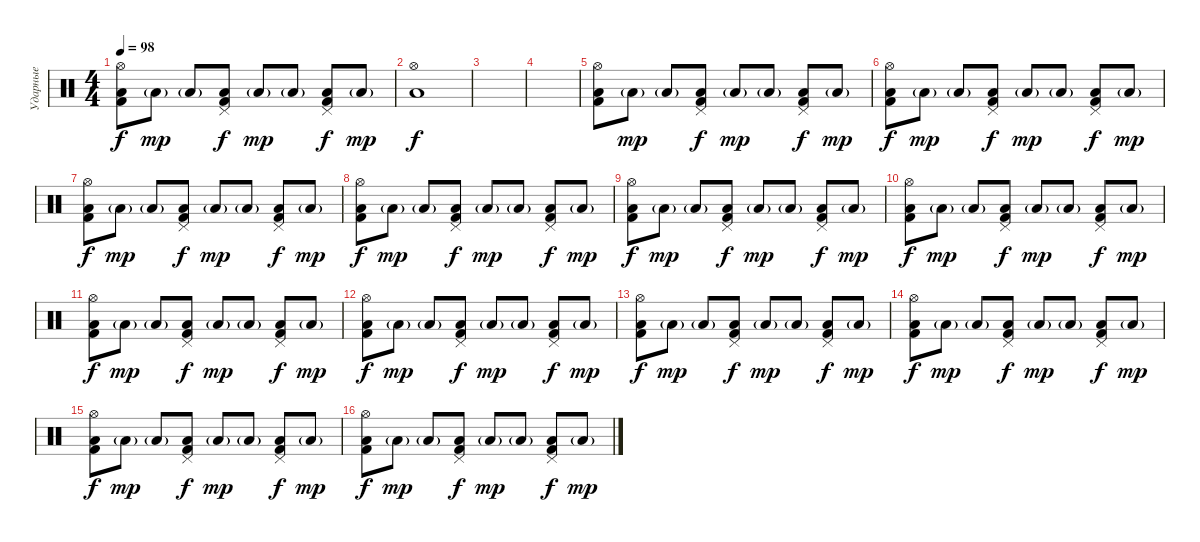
\track ("Ударные" "Ударные") {instrument percussion}
\staff {score}
\articulation defaults
\ts (4 4)
\tempo 98
\clef neutral
\ks c
("Hi-Hat (open)" "Kick (hit) 2" "Low Tom (hit)").8{dy f} "Low Tom (hit)"{g}.8{dy mp} "Low Tom (hit)"{g}.8 ("Pedal Hi-Hat (hit)" "Kick (hit) 2" "Low Tom (hit)").8{dy f} "Low Tom (hit)"{g}.8{dy mp} "Low Tom (hit)"{g}.8 ("Pedal Hi-Hat (hit)" "Kick (hit) 2" "Low Tom (hit)").8{dy f} "Low Tom (hit)"{g}.8{dy mp} |
("Hi-Hat (open)" "Low Tom (hit)").1{dy f} |
|
|
("Hi-Hat (open)" "Kick (hit) 2" "Low Tom (hit)").8 "Low Tom (hit)"{g}.8{dy mp} "Low Tom (hit)"{g}.8 ("Pedal Hi-Hat (hit)" "Kick (hit) 2" "Low Tom (hit)").8{dy f} "Low Tom (hit)"{g}.8{dy mp} "Low Tom (hit)"{g}.8 ("Pedal Hi-Hat (hit)" "Kick (hit) 2" "Low Tom (hit)").8{dy f} "Low Tom (hit)"{g}.8{dy mp} |
("Hi-Hat (open)" "Kick (hit) 2" "Low Tom (hit)").8{dy f} "Low Tom (hit)"{g}.8{dy mp} "Low Tom (hit)"{g}.8 ("Pedal Hi-Hat (hit)" "Kick (hit) 2" "Low Tom (hit)").8{dy f} "Low Tom (hit)"{g}.8{dy mp} "Low Tom (hit)"{g}.8 ("Pedal Hi-Hat (hit)" "Kick (hit) 2" "Low Tom (hit)").8{dy f} "Low Tom (hit)"{g}.8{dy mp} |
("Hi-Hat (open)" "Kick (hit) 2" "Low Tom (hit)").8{dy f} "Low Tom (hit)"{g}.8{dy mp} "Low Tom (hit)"{g}.8 ("Pedal Hi-Hat (hit)" "Kick (hit) 2" "Low Tom (hit)").8{dy f} "Low Tom (hit)"{g}.8{dy mp} "Low Tom (hit)"{g}.8 ("Pedal Hi-Hat (hit)" "Kick (hit) 2" "Low Tom (hit)").8{dy f} "Low Tom (hit)"{g}.8{dy mp} |
("Hi-Hat (open)" "Kick (hit) 2" "Low Tom (hit)").8{dy f} "Low Tom (hit)"{g}.8{dy mp} "Low Tom (hit)"{g}.8 ("Pedal Hi-Hat (hit)" "Kick (hit) 2" "Low Tom (hit)").8{dy f} "Low Tom (hit)"{g}.8{dy mp} "Low Tom (hit)"{g}.8 ("Pedal Hi-Hat (hit)" "Kick (hit) 2" "Low Tom (hit)").8{dy f} "Low Tom (hit)"{g}.8{dy mp} |
("Hi-Hat (open)" "Kick (hit) 2" "Low Tom (hit)").8{dy f} "Low Tom (hit)"{g}.8{dy mp} "Low Tom (hit)"{g}.8 ("Pedal Hi-Hat (hit)" "Kick (hit) 2" "Low Tom (hit)").8{dy f} "Low Tom (hit)"{g}.8{dy mp} "Low Tom (hit)"{g}.8 ("Pedal Hi-Hat (hit)" "Kick (hit) 2" "Low Tom (hit)").8{dy f} "Low Tom (hit)"{g}.8{dy mp} |
("Hi-Hat (open)" "Kick (hit) 2" "Low Tom (hit)").8{dy f} "Low Tom (hit)"{g}.8{dy mp} "Low Tom (hit)"{g}.8 ("Pedal Hi-Hat (hit)" "Kick (hit) 2" "Low Tom (hit)").8{dy f} "Low Tom (hit)"{g}.8{dy mp} "Low Tom (hit)"{g}.8 ("Pedal Hi-Hat (hit)" "Kick (hit) 2" "Low Tom (hit)").8{dy f} "Low Tom (hit)"{g}.8{dy mp} |
("Hi-Hat (open)" "Kick (hit) 2" "Low Tom (hit)").8{dy f} "Low Tom (hit)"{g}.8{dy mp} "Low Tom (hit)"{g}.8 ("Pedal Hi-Hat (hit)" "Kick (hit) 2" "Low Tom (hit)").8{dy f} "Low Tom (hit)"{g}.8{dy mp} "Low Tom (hit)"{g}.8 ("Pedal Hi-Hat (hit)" "Kick (hit) 2" "Low Tom (hit)").8{dy f} "Low Tom (hit)"{g}.8{dy mp} |
("Hi-Hat (open)" "Kick (hit) 2" "Low Tom (hit)").8{dy f} "Low Tom (hit)"{g}.8{dy mp} "Low Tom (hit)"{g}.8 ("Pedal Hi-Hat (hit)" "Kick (hit) 2" "Low Tom (hit)").8{dy f} "Low Tom (hit)"{g}.8{dy mp} "Low Tom (hit)"{g}.8 ("Pedal Hi-Hat (hit)" "Kick (hit) 2" "Low Tom (hit)").8{dy f} "Low Tom (hit)"{g}.8{dy mp} |
("Hi-Hat (open)" "Kick (hit) 2" "Low Tom (hit)").8{dy f} "Low Tom (hit)"{g}.8{dy mp} "Low Tom (hit)"{g}.8 ("Pedal Hi-Hat (hit)" "Kick (hit) 2" "Low Tom (hit)").8{dy f} "Low Tom (hit)"{g}.8{dy mp} "Low Tom (hit)"{g}.8 ("Pedal Hi-Hat (hit)" "Kick (hit) 2" "Low Tom (hit)").8{dy f} "Low Tom (hit)"{g}.8{dy mp} |
("Hi-Hat (open)" "Kick (hit) 2" "Low Tom (hit)").8{dy f} "Low Tom (hit)"{g}.8{dy mp} "Low Tom (hit)"{g}.8 ("Pedal Hi-Hat (hit)" "Kick (hit) 2" "Low Tom (hit)").8{dy f} "Low Tom (hit)"{g}.8{dy mp} "Low Tom (hit)"{g}.8 ("Pedal Hi-Hat (hit)" "Kick (hit) 2" "Low Tom (hit)").8{dy f} "Low Tom (hit)"{g}.8{dy mp} |
("Hi-Hat (open)" "Kick (hit) 2" "Low Tom (hit)").8{dy f} "Low Tom (hit)"{g}.8{dy mp} "Low Tom (hit)"{g}.8 ("Pedal Hi-Hat (hit)" "Kick (hit) 2" "Low Tom (hit)").8{dy f} "Low Tom (hit)"{g}.8{dy mp} "Low Tom (hit)"{g}.8 ("Pedal Hi-Hat (hit)" "Kick (hit) 2" "Low Tom (hit)").8{dy f} "Low Tom (hit)"{g}.8{dy mp} |
("Hi-Hat (open)" "Kick (hit) 2" "Low Tom (hit)").8{dy f} "Low Tom (hit)"{g}.8{dy mp} "Low Tom (hit)"{g}.8 ("Pedal Hi-Hat (hit)" "Kick (hit) 2" "Low Tom (hit)").8{dy f} "Low Tom (hit)"{g}.8{dy mp} "Low Tom (hit)"{g}.8 ("Pedal Hi-Hat (hit)" "Kick (hit) 2" "Low Tom (hit)").8{dy f} "Low Tom (hit)"{g}.8{dy mp}
